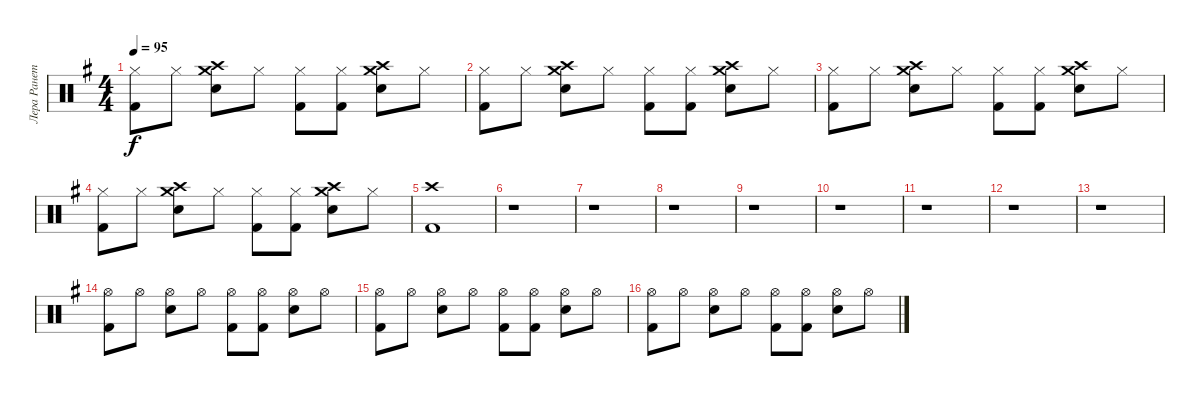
\track ("Лера Ранетка" "Лера Ранет") {instrument percussion}
\staff {score}
\articulation defaults
\ts (4 4)
\tempo 95
\clef neutral
\ks eminor
("Hi-Hat (closed)" "Kick (hit) 2").8{dy f} "Hi-Hat (closed)".8 ("Crash medium (hit)" "Crash high (hit)" "Electric Snare (hit)").8 "Hi-Hat (closed)".8 ("Hi-Hat (closed)" "Kick (hit) 2").8 ("Hi-Hat (closed)" "Kick (hit) 2").8 ("Crash medium (hit)" "Crash high (hit)" "Electric Snare (hit)").8 "Hi-Hat (closed)".8 |
("Hi-Hat (closed)" "Kick (hit) 2").8 "Hi-Hat (closed)".8 ("Crash high (hit)" "Crash medium (hit)" "Electric Snare (hit)").8 "Hi-Hat (closed)".8 ("Hi-Hat (closed)" "Kick (hit) 2").8 ("Hi-Hat (closed)" "Kick (hit) 2").8 ("Crash high (hit)" "Crash medium (hit)" "Electric Snare (hit)").8 "Hi-Hat (closed)".8 |
("Hi-Hat (closed)" "Kick (hit) 2").8 "Hi-Hat (closed)".8 ("Crash high (hit)" "Crash medium (hit)" "Electric Snare (hit)").8 "Hi-Hat (closed)".8 ("Hi-Hat (closed)" "Kick (hit) 2").8 ("Hi-Hat (closed)" "Kick (hit) 2").8 ("Crash high (hit)" "Crash medium (hit)" "Electric Snare (hit)").8 "Hi-Hat (closed)".8 |
("Hi-Hat (closed)" "Kick (hit) 2").8 "Hi-Hat (closed)".8 ("Crash high (hit)" "Crash medium (hit)" "Electric Snare (hit)").8 "Hi-Hat (closed)".8 ("Hi-Hat (closed)" "Kick (hit) 2").8 ("Hi-Hat (closed)" "Kick (hit) 2").8 ("Crash high (hit)" "Crash medium (hit)" "Electric Snare (hit)").8 "Hi-Hat (closed)".8 |
("Crash high (hit)" "Kick (hit) 2").1 |
r.1 |
r.1 |
r.1 |
r.1 |
r.1 |
r.1 |
r.1 |
r.1 |
("Hi-Hat (open)" "Kick (hit) 2").8 "Hi-Hat (open)".8 ("Hi-Hat (open)" "Electric Snare (hit)").8 "Hi-Hat (open)".8 ("Hi-Hat (open)" "Kick (hit) 2").8 ("Hi-Hat (open)" "Kick (hit) 2").8 ("Hi-Hat (open)" "Electric Snare (hit)").8 "Hi-Hat (open)".8 |
("Hi-Hat (open)" "Kick (hit) 2").8 "Hi-Hat (open)".8 ("Hi-Hat (open)" "Electric Snare (hit)").8 "Hi-Hat (open)".8 ("Hi-Hat (open)" "Kick (hit) 2").8 ("Hi-Hat (open)" "Kick (hit) 2").8 ("Hi-Hat (open)" "Electric Snare (hit)").8 "Hi-Hat (open)".8 |
("Hi-Hat (open)" "Kick (hit) 2").8 "Hi-Hat (open)".8 ("Hi-Hat (open)" "Electric Snare (hit)").8 "Hi-Hat (open)".8 ("Hi-Hat (open)" "Kick (hit) 2").8 ("Hi-Hat (open)" "Kick (hit) 2").8 ("Hi-Hat (open)" "Electric Snare (hit)").8 "Hi-Hat (open)".8
